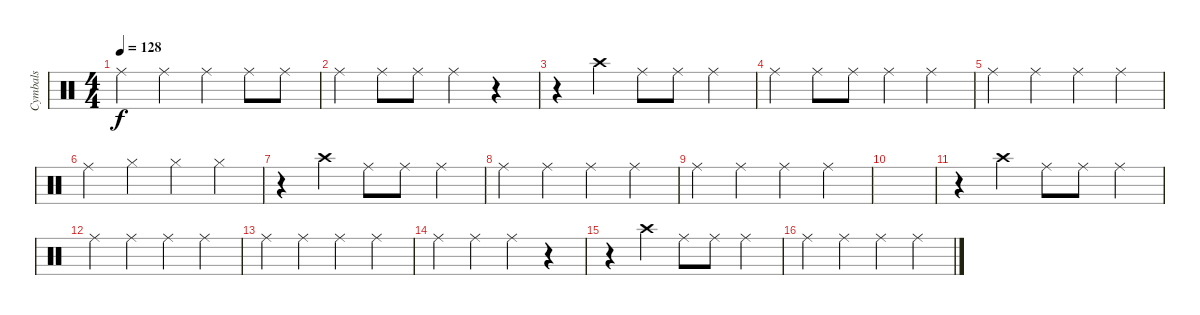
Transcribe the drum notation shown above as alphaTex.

\track ("Cymbals" "Cymbals") {instrument percussion}
\staff {score}
\articulation defaults
\ts (4 4)
\tempo 128
\clef neutral
\ks c "Ride (middle)".4{dy f} "Ride (middle)".4 "Ride (middle)".4 "Ride (middle)".8 "Ride (middle)".8
|
"Ride (middle)".4 "Ride (middle)".8 "Ride (middle)".8 "Ride (middle)".4 r.4 |
r.4 "Crash high (hit)".4 "Ride (middle)".8 "Ride (middle)".8 "Ride (middle)".4 |
"Ride (middle)".4 "Ride (middle)".8 "Ride (middle)".8 "Ride (middle)".4 "Ride (middle)".4 |
"Ride (middle)".4 "Ride (middle)".4 "Ride (middle)".4 "Ride (middle)".4 |
"Ride (middle)".4 "Hi-Hat (closed)".4 "Hi-Hat (closed)".4 "Hi-Hat (closed)".4 |
r.4 "Crash high (hit)".4 "Ride (middle)".8 "Ride (middle)".8 "Ride (middle)".4 |
"Ride (middle)".4 "Ride (middle)".4 "Ride (middle)".4 "Ride (middle)".4 |
"Ride (middle)".4 "Ride (middle)".4 "Ride (middle)".4 "Ride (middle)".4 |
|
r.4 "Crash high (hit)".4 "Ride (middle)".8 "Ride (middle)".8 "Ride (middle)".4 |
"Ride (middle)".4 "Ride (middle)".4 "Ride (middle)".4 "Ride (middle)".4 |
"Ride (middle)".4 "Ride (middle)".4 "Ride (middle)".4 "Ride (middle)".4 |
"Ride (middle)".4 "Ride (middle)".4 "Ride (middle)".4 r.4 |
r.4 "Crash high (hit)".4 "Ride (middle)".8 "Ride (middle)".8 "Ride (middle)".4 |
"Ride (middle)".4 "Ride (middle)".4 "Ride (middle)".4 "Ride (middle)".4
